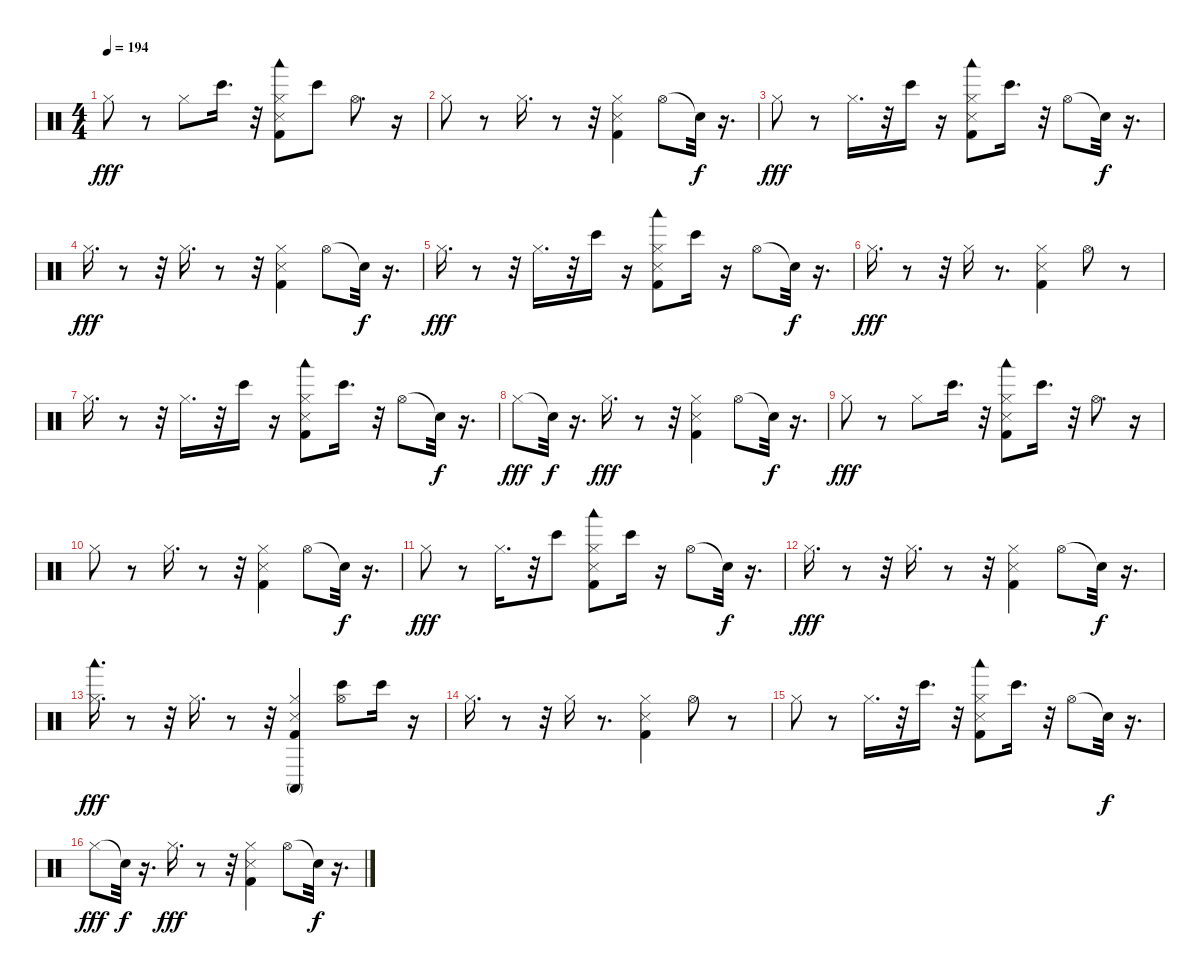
\track "" {instrument percussion}
\staff {score}
\articulation defaults
\ts (4 4)
\tempo 194
\clef neutral
\ks c "Hi-Hat (closed)".8{dy fff}
r.8 "Hi-Hat (closed)".8 "Bongo High (hit)".16{d} r.32 ("Hi-Hat (closed)" "Snare (side stick) 3" "Kick (hit) 2" "Woodblock low (hit)").8 "Bongo High (hit)".8 "Hi-Hat (open)".8{d} r.16 |
"Hi-Hat (closed)".8 r.8 "Hi-Hat (closed)".16{d} r.8 r.32 ("Snare (side stick) 3" "Kick (hit) 2" "Hi-Hat (closed)").4 "Hi-Hat (open)".8 "Snare (hit)"{t}.32{dy f} r.16{d} |
"Hi-Hat (closed)".8{dy fff} r.8 "Hi-Hat (closed)".16{d} r.32 "Bongo High (hit)".16 r.16 ("Snare (side stick) 3" "Kick (hit) 2" "Hi-Hat (closed)" "Woodblock low (hit)").8 "Bongo High (hit)".16{d} r.32 "Hi-Hat (open)".8 "Snare (hit)"{t}.32{dy f} r.16{d} |
"Hi-Hat (closed)".16{d dy fff} r.8 r.32 "Hi-Hat (closed)".16{d} r.8 r.32 ("Kick (hit) 2" "Snare (side stick) 3" "Hi-Hat (closed)").4 "Hi-Hat (open)".8 "Snare (hit)"{t}.32{dy f} r.16{d} |
"Hi-Hat (closed)".16{d dy fff} r.8 r.32 "Hi-Hat (closed)".16{d} r.32 "Bongo High (hit)".16 r.16 ("Kick (hit) 2" "Hi-Hat (closed)" "Snare (side stick) 3" "Woodblock low (hit)").8 "Bongo High (hit)".16 r.16 "Hi-Hat (open)".8 "Snare (hit)"{t}.32{dy f} r.16{d} |
"Hi-Hat (closed)".16{d dy fff} r.8 r.32 "Hi-Hat (closed)".16 r.8{d} ("Kick (hit) 2" "Snare (side stick) 3" "Hi-Hat (closed)").4 "Hi-Hat (open)".8 r.8 |
"Hi-Hat (closed)".16{d} r.8 r.32 "Hi-Hat (closed)".16{d} r.32 "Bongo High (hit)".16 r.16 ("Woodblock low (hit)" "Kick (hit) 2" "Snare (side stick) 3" "Hi-Hat (closed)").8 "Bongo High (hit)".16{d} r.32 "Hi-Hat (open)".8 "Snare (hit)"{t}.32{dy f} r.16{d} |
"Hi-Hat (closed)".8{dy fff} "Snare (hit)"{t}.32{dy f} r.16{d} "Hi-Hat (closed)".16{d dy fff} r.8 r.32 ("Kick (hit) 2" "Snare (side stick) 3" "Hi-Hat (closed)").4 "Hi-Hat (open)".8 "Snare (hit)"{t}.32{dy f} r.16{d} |
"Hi-Hat (closed)".8{dy fff} r.8 "Hi-Hat (closed)".8 "Bongo High (hit)".16{d} r.32 ("Kick (hit) 2" "Hi-Hat (closed)" "Snare (side stick) 3" "Woodblock low (hit)").8 "Bongo High (hit)".16{d} r.32 "Hi-Hat (open)".8{d} r.16 |
"Hi-Hat (closed)".8 r.8 "Hi-Hat (closed)".16{d} r.8 r.32 ("Kick (hit) 2" "Snare (side stick) 3" "Hi-Hat (closed)").4 "Hi-Hat (open)".8 "Snare (hit)"{t}.32{dy f} r.16{d} |
"Hi-Hat (closed)".8{dy fff} r.8 "Hi-Hat (closed)".16{d} r.32 "Bongo High (hit)".8 ("Kick (hit) 2" "Snare (side stick) 3" "Hi-Hat (closed)" "Woodblock low (hit)").8 "Bongo High (hit)".16 r.16 "Hi-Hat (open)".8 "Snare (hit)"{t}.32{dy f} r.16{d} |
"Hi-Hat (closed)".16{d dy fff} r.8 r.32 "Hi-Hat (closed)".16{d} r.8 r.32 ("Kick (hit) 2" "Snare (side stick) 3" "Hi-Hat (closed)").4 "Hi-Hat (open)".8 "Snare (hit)"{t}.32{dy f} r.16{d} |
("Hi-Hat (closed)" "Woodblock low (hit)").16{d dy fff} r.8 r.32 "Hi-Hat (closed)".16{d} r.8 r.32 ("Kick (hit) 2" "Hi-Hat (closed)" "Snare (side stick) 3" "Conga high (mute)").4 ("Hi-Hat (open)" "Bongo High (hit)").8 "Bongo High (hit)".16 r.16 |
"Hi-Hat (closed)".16{d} r.8 r.32 "Hi-Hat (closed)".16 r.8{d} ("Snare (side stick) 3" "Kick (hit) 2" "Hi-Hat (closed)").4 "Hi-Hat (open)".8 r.8 |
"Hi-Hat (closed)".8 r.8 "Hi-Hat (closed)".16{d} r.32 "Bongo High (hit)".16{d} r.32 ("Snare (side stick) 3" "Kick (hit) 2" "Hi-Hat (closed)" "Woodblock low (hit)").8 "Bongo High (hit)".16{d} r.32 "Hi-Hat (open)".8 "Snare (hit)"{t}.32{dy f} r.16{d} |
"Hi-Hat (closed)".8{dy fff} "Snare (hit)"{t}.32{dy f} r.16{d} "Hi-Hat (closed)".16{d dy fff} r.8 r.32 ("Snare (side stick) 3" "Kick (hit) 2" "Hi-Hat (closed)").4 "Hi-Hat (open)".8 "Snare (hit)"{t}.32{dy f} r.16{d}
